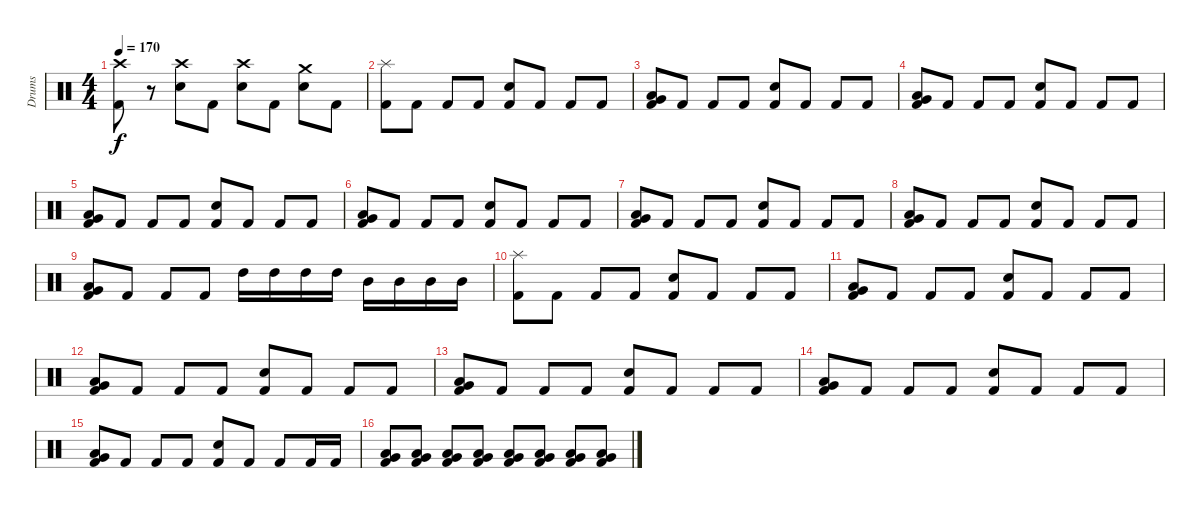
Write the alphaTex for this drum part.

\track ("Drums" "Drums") {instrument percussion}
\staff {score}
\articulation defaults
\ts (4 4)
\tempo 170
\clef neutral
\ks c
("Crash high (hit)" "Kick (hit) 2").8{dy f} r.8 ("Crash high (hit)" "Snare (hit) 2").8 "Kick (hit) 2".8 ("Crash high (hit)" "Snare (hit) 2").8 "Kick (hit) 2".8 ("Crash medium (hit)" "Snare (hit) 2").8 "Kick (hit) 2".8 |
("Splash (hit)" "Kick (hit) 2").8 "Kick (hit) 2".8 "Kick (hit) 2".8 "Kick (hit) 2".8 ("Snare (hit) 2" "Kick (hit) 2").8 "Kick (hit) 2".8 "Kick (hit) 2".8 "Kick (hit) 2".8 |
("Very Low Tom (hit)" "Low Tom (hit)" "Kick (hit) 2").8 "Kick (hit) 2".8 "Kick (hit) 2".8 "Kick (hit) 2".8 ("Snare (hit) 2" "Kick (hit) 2").8 "Kick (hit) 2".8 "Kick (hit) 2".8 "Kick (hit) 2".8 |
("Very Low Tom (hit)" "Low Tom (hit)" "Kick (hit) 2").8 "Kick (hit) 2".8 "Kick (hit) 2".8 "Kick (hit) 2".8 ("Snare (hit) 2" "Kick (hit) 2").8 "Kick (hit) 2".8 "Kick (hit) 2".8 "Kick (hit) 2".8 |
("Very Low Tom (hit)" "Low Tom (hit)" "Kick (hit) 2").8 "Kick (hit) 2".8 "Kick (hit) 2".8 "Kick (hit) 2".8 ("Snare (hit) 2" "Kick (hit) 2").8 "Kick (hit) 2".8 "Kick (hit) 2".8 "Kick (hit) 2".8 |
("Very Low Tom (hit)" "Low Tom (hit)" "Kick (hit) 2").8 "Kick (hit) 2".8 "Kick (hit) 2".8 "Kick (hit) 2".8 ("Snare (hit) 2" "Kick (hit) 2").8 "Kick (hit) 2".8 "Kick (hit) 2".8 "Kick (hit) 2".8 |
("Very Low Tom (hit)" "Low Tom (hit)" "Kick (hit) 2").8 "Kick (hit) 2".8 "Kick (hit) 2".8 "Kick (hit) 2".8 ("Snare (hit) 2" "Kick (hit) 2").8 "Kick (hit) 2".8 "Kick (hit) 2".8 "Kick (hit) 2".8 |
("Very Low Tom (hit)" "Low Tom (hit)" "Kick (hit) 2").8 "Kick (hit) 2".8 "Kick (hit) 2".8 "Kick (hit) 2".8 ("Snare (hit) 2" "Kick (hit) 2").8 "Kick (hit) 2".8 "Kick (hit) 2".8 "Kick (hit) 2".8 |
("Very Low Tom (hit)" "Low Tom (hit)" "Kick (hit) 2").8 "Kick (hit) 2".8 "Kick (hit) 2".8 "Kick (hit) 2".8 "High Tom (hit)".16 "High Tom (hit)".16 "High Tom (hit)".16 "High Tom (hit)".16 "Mid Tom (hit)".16 "Mid Tom (hit)".16 "Mid Tom (hit)".16 "Mid Tom (hit)".16 |
("Splash (hit)" "Kick (hit) 2").8 "Kick (hit) 2".8 "Kick (hit) 2".8 "Kick (hit) 2".8 ("Snare (hit) 2" "Kick (hit) 2").8 "Kick (hit) 2".8 "Kick (hit) 2".8 "Kick (hit) 2".8 |
("Very Low Tom (hit)" "Low Tom (hit)" "Kick (hit) 2").8 "Kick (hit) 2".8 "Kick (hit) 2".8 "Kick (hit) 2".8 ("Snare (hit) 2" "Kick (hit) 2").8 "Kick (hit) 2".8 "Kick (hit) 2".8 "Kick (hit) 2".8 |
("Very Low Tom (hit)" "Low Tom (hit)" "Kick (hit) 2").8 "Kick (hit) 2".8 "Kick (hit) 2".8 "Kick (hit) 2".8 ("Snare (hit) 2" "Kick (hit) 2").8 "Kick (hit) 2".8 "Kick (hit) 2".8 "Kick (hit) 2".8 |
("Very Low Tom (hit)" "Low Tom (hit)" "Kick (hit) 2").8 "Kick (hit) 2".8 "Kick (hit) 2".8 "Kick (hit) 2".8 ("Snare (hit) 2" "Kick (hit) 2").8 "Kick (hit) 2".8 "Kick (hit) 2".8 "Kick (hit) 2".8 |
("Very Low Tom (hit)" "Low Tom (hit)" "Kick (hit) 2").8 "Kick (hit) 2".8 "Kick (hit) 2".8 "Kick (hit) 2".8 ("Snare (hit) 2" "Kick (hit) 2").8 "Kick (hit) 2".8 "Kick (hit) 2".8 "Kick (hit) 2".8 |
("Very Low Tom (hit)" "Low Tom (hit)" "Kick (hit) 2").8 "Kick (hit) 2".8 "Kick (hit) 2".8 "Kick (hit) 2".8 ("Snare (hit) 2" "Kick (hit) 2").8 "Kick (hit) 2".8 "Kick (hit) 2".8 "Kick (hit) 2".16 "Kick (hit) 2".16 |
("Very Low Tom (hit)" "Low Tom (hit)" "Kick (hit) 2").8 ("Very Low Tom (hit)" "Low Tom (hit)" "Kick (hit) 2").8 ("Very Low Tom (hit)" "Low Tom (hit)" "Kick (hit) 2").8 ("Very Low Tom (hit)" "Low Tom (hit)" "Kick (hit) 2").8 ("Very Low Tom (hit)" "Low Tom (hit)" "Kick (hit) 2").8 ("Very Low Tom (hit)" "Low Tom (hit)" "Kick (hit) 2").8 ("Very Low Tom (hit)" "Low Tom (hit)" "Kick (hit) 2").8 ("Very Low Tom (hit)" "Low Tom (hit)" "Kick (hit) 2").8
